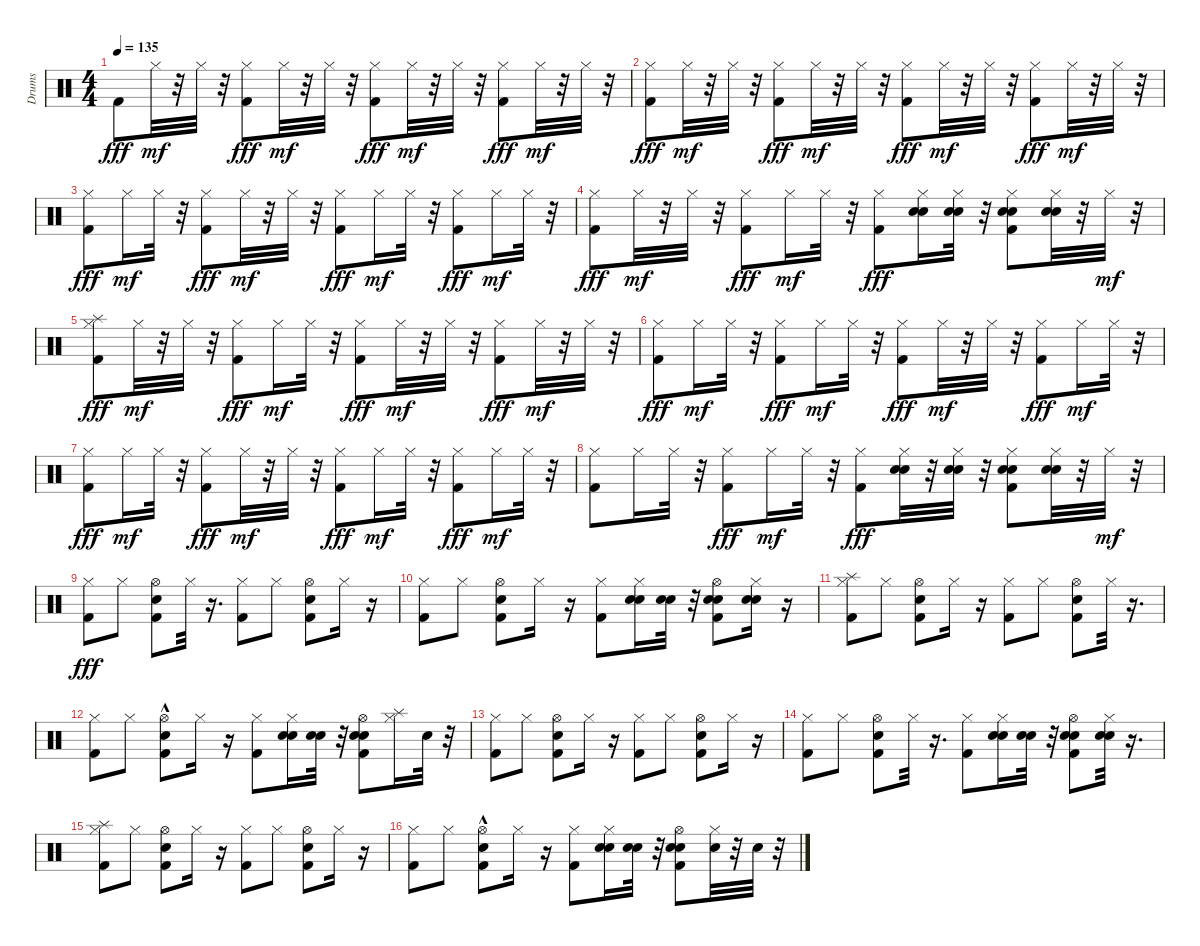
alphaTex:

\track ("Drums" "Drums") {instrument percussion}
\staff {score}
\articulation defaults
\ts (4 4)
\tempo 135
\clef neutral
\ks c "Kick (hit) 2".8{dy fff} "Hi-Hat (closed)".32{dy mf}
r.32 "Hi-Hat (closed)".32 r.32 ("Hi-Hat (closed)" "Kick (hit) 2").8{dy fff} "Hi-Hat (closed)".32{dy mf} r.32 "Hi-Hat (closed)".32 r.32 ("Hi-Hat (closed)" "Kick (hit) 2").8{dy fff} "Hi-Hat (closed)".32{dy mf} r.32 "Hi-Hat (closed)".32 r.32 ("Hi-Hat (closed)" "Kick (hit) 2").8{dy fff} "Hi-Hat (closed)".32{dy mf} r.32 "Hi-Hat (closed)".32 r.32 |
("Hi-Hat (closed)" "Kick (hit) 2").8{dy fff} "Hi-Hat (closed)".32{dy mf} r.32 "Hi-Hat (closed)".32 r.32 ("Hi-Hat (closed)" "Kick (hit) 2").8{dy fff} "Hi-Hat (closed)".32{dy mf} r.32 "Hi-Hat (closed)".32 r.32 ("Hi-Hat (closed)" "Kick (hit) 2").8{dy fff} "Hi-Hat (closed)".32{dy mf} r.32 "Hi-Hat (closed)".32 r.32 ("Hi-Hat (closed)" "Kick (hit) 2").8{dy fff} "Hi-Hat (closed)".32{dy mf} r.32 "Hi-Hat (closed)".32 r.32 |
("Hi-Hat (closed)" "Kick (hit) 2").8{dy fff} "Hi-Hat (closed)".16{dy mf} "Hi-Hat (closed)".32 r.32 ("Hi-Hat (closed)" "Kick (hit) 2").8{dy fff} "Hi-Hat (closed)".32{dy mf} r.32 "Hi-Hat (closed)".32 r.32 ("Hi-Hat (closed)" "Kick (hit) 2").8{dy fff} "Hi-Hat (closed)".16{dy mf} "Hi-Hat (closed)".32 r.32 ("Hi-Hat (closed)" "Kick (hit) 2").8{dy fff} "Hi-Hat (closed)".16{dy mf} "Hi-Hat (closed)".32 r.32 |
("Hi-Hat (closed)" "Kick (hit) 2").8{dy fff} "Hi-Hat (closed)".32{dy mf} r.32 "Hi-Hat (closed)".32 r.32 ("Hi-Hat (closed)" "Kick (hit) 2").8{dy fff} "Hi-Hat (closed)".16{dy mf} "Hi-Hat (closed)".32 r.32 ("Hi-Hat (closed)" "Kick (hit) 2").8{dy fff} ("Hi-Hat (closed)" "Snare (hit) 2" "Electric Snare (hit)").16 ("Hi-Hat (closed)" "Electric Snare (hit)" "Snare (hit) 2").32 r.32 ("Hi-Hat (closed)" "Kick (hit) 2" "Electric Snare (hit)" "Snare (hit) 2").8 ("Hi-Hat (closed)" "Electric Snare (hit)" "Snare (hit) 2").32 r.32 "Hi-Hat (closed)".32{dy mf} r.32 |
("Hi-Hat (closed)" "Kick (hit) 2" "Splash (hit)").8{dy fff} "Hi-Hat (closed)".32{dy mf} r.32 "Hi-Hat (closed)".32 r.32 ("Hi-Hat (closed)" "Kick (hit) 2").8{dy fff} "Hi-Hat (closed)".16{dy mf} "Hi-Hat (closed)".32 r.32 ("Hi-Hat (closed)" "Kick (hit) 2").8{dy fff} "Hi-Hat (closed)".32{dy mf} r.32 "Hi-Hat (closed)".32 r.32 ("Hi-Hat (closed)" "Kick (hit) 2").8{dy fff} "Hi-Hat (closed)".32{dy mf} r.32 "Hi-Hat (closed)".32 r.32 |
("Hi-Hat (closed)" "Kick (hit) 2").8{dy fff} "Hi-Hat (closed)".16{dy mf} "Hi-Hat (closed)".32 r.32 ("Hi-Hat (closed)" "Kick (hit) 2").8{dy fff} "Hi-Hat (closed)".16{dy mf} "Hi-Hat (closed)".32 r.32 ("Hi-Hat (closed)" "Kick (hit) 2").8{dy fff} "Hi-Hat (closed)".32{dy mf} r.32 "Hi-Hat (closed)".32 r.32 ("Hi-Hat (closed)" "Kick (hit) 2").8{dy fff} "Hi-Hat (closed)".16{dy mf} "Hi-Hat (closed)".32 r.32 |
("Hi-Hat (closed)" "Kick (hit) 2").8{dy fff} "Hi-Hat (closed)".16{dy mf} "Hi-Hat (closed)".32 r.32 ("Hi-Hat (closed)" "Kick (hit) 2").8{dy fff} "Hi-Hat (closed)".32{dy mf} r.32 "Hi-Hat (closed)".32 r.32 ("Hi-Hat (closed)" "Kick (hit) 2").8{dy fff} "Hi-Hat (closed)".16{dy mf} "Hi-Hat (closed)".32 r.32 ("Hi-Hat (closed)" "Kick (hit) 2").8{dy fff} "Hi-Hat (closed)".16{dy mf} "Hi-Hat (closed)".32 r.32 |
("Kick (hit) 2" "Hi-Hat (closed)").8 "Hi-Hat (closed)".16 "Hi-Hat (closed)".32 r.32 ("Hi-Hat (closed)" "Kick (hit) 2").8{dy fff} "Hi-Hat (closed)".16{dy mf} "Hi-Hat (closed)".32 r.32 ("Hi-Hat (closed)" "Kick (hit) 2").8{dy fff} ("Hi-Hat (closed)" "Electric Snare (hit)" "Snare (hit) 2").32 r.32 ("Hi-Hat (closed)" "Electric Snare (hit)" "Snare (hit) 2").32 r.32 ("Hi-Hat (closed)" "Kick (hit) 2" "Electric Snare (hit)" "Snare (hit) 2").8 ("Electric Snare (hit)" "Hi-Hat (closed)" "Snare (hit) 2").32 r.32 "Hi-Hat (closed)".32{dy mf} r.32 |
("Hi-Hat (closed)" "Kick (hit) 2").8{dy fff} "Hi-Hat (closed)".8 ("Kick (hit) 2" "Snare (hit) 2" "Hi-Hat (open)").8 "Hi-Hat (closed)".32 r.16{d} ("Kick (hit) 2" "Hi-Hat (closed)").8 "Hi-Hat (closed)".8 ("Kick (hit) 2" "Snare (hit) 2" "Hi-Hat (open)").8 "Hi-Hat (closed)".16 r.16 |
("Kick (hit) 2" "Hi-Hat (closed)").8 "Hi-Hat (closed)".8 ("Kick (hit) 2" "Snare (hit) 2" "Hi-Hat (open)").8 "Hi-Hat (closed)".16 r.16 ("Kick (hit) 2" "Hi-Hat (closed)").8 ("Hi-Hat (closed)" "Electric Snare (hit)" "Snare (hit) 2").16 ("Electric Snare (hit)" "Snare (hit) 2").32 r.32 ("Electric Snare (hit)" "Kick (hit) 2" "Hi-Hat (open)" "Snare (hit) 2").8 ("Hi-Hat (closed)" "Electric Snare (hit)" "Snare (hit) 2").16 r.16 |
("Kick (hit) 2" "Hi-Hat (closed)" "Splash (hit)").8 "Hi-Hat (closed)".8 ("Kick (hit) 2" "Hi-Hat (open)" "Snare (hit) 2").8 "Hi-Hat (closed)".16 r.16 ("Kick (hit) 2" "Hi-Hat (closed)").8 "Hi-Hat (closed)".8 ("Kick (hit) 2" "Snare (hit) 2" "Hi-Hat (open)").8 "Hi-Hat (closed)".32 r.16{d} |
("Kick (hit) 2" "Hi-Hat (closed)").8 "Hi-Hat (closed)".8 ("Kick (hit) 2" "Snare (hit) 2"{hac} "Hi-Hat (open)").8 "Hi-Hat (closed)".16 r.16 ("Kick (hit) 2" "Hi-Hat (closed)").8 ("Hi-Hat (closed)" "Electric Snare (hit)" "Snare (hit) 2").16 ("Electric Snare (hit)" "Snare (hit) 2").32 r.32 ("Kick (hit) 2" "Hi-Hat (open)" "Electric Snare (hit)" "Snare (hit) 2").8 ("Hi-Hat (closed)" "Splash (hit)").16 "Snare (hit) 2".32 r.32 |
("Kick (hit) 2" "Hi-Hat (closed)").8 "Hi-Hat (closed)".8 ("Kick (hit) 2" "Snare (hit) 2" "Hi-Hat (open)").8 "Hi-Hat (closed)".16 r.16 ("Kick (hit) 2" "Hi-Hat (closed)").8 "Hi-Hat (closed)".8 ("Kick (hit) 2" "Snare (hit) 2" "Hi-Hat (open)").8 "Hi-Hat (closed)".16 r.16 |
("Kick (hit) 2" "Hi-Hat (closed)").8 "Hi-Hat (closed)".8 ("Kick (hit) 2" "Snare (hit) 2" "Hi-Hat (open)").8 "Hi-Hat (closed)".32 r.16{d} ("Kick (hit) 2" "Hi-Hat (closed)").8 ("Hi-Hat (closed)" "Electric Snare (hit)" "Snare (hit) 2").16 ("Electric Snare (hit)" "Snare (hit) 2").32 r.32 ("Kick (hit) 2" "Hi-Hat (open)" "Electric Snare (hit)" "Snare (hit) 2").8 ("Hi-Hat (closed)" "Electric Snare (hit)" "Snare (hit) 2").32 r.16{d} |
("Kick (hit) 2" "Hi-Hat (closed)" "Splash (hit)").8 "Hi-Hat (closed)".8 ("Kick (hit) 2" "Snare (hit) 2" "Hi-Hat (open)").8 "Hi-Hat (closed)".16 r.16 ("Kick (hit) 2" "Hi-Hat (closed)").8 "Hi-Hat (closed)".8 ("Snare (hit) 2" "Kick (hit) 2" "Hi-Hat (open)").8 "Hi-Hat (closed)".16 r.16 |
("Kick (hit) 2" "Hi-Hat (closed)").8 "Hi-Hat (closed)".8 ("Hi-Hat (open)" "Kick (hit) 2" "Snare (hit) 2"{hac}).8 "Hi-Hat (closed)".16 r.16 ("Kick (hit) 2" "Hi-Hat (closed)").8 ("Hi-Hat (closed)" "Electric Snare (hit)" "Snare (hit) 2").16 ("Electric Snare (hit)" "Snare (hit) 2").32 r.32 ("Kick (hit) 2" "Electric Snare (hit)" "Snare (hit) 2" "Hi-Hat (open)").8 ("Hi-Hat (closed)" "Snare (hit) 2").32 r.32 "Snare (hit) 2".32 r.32
